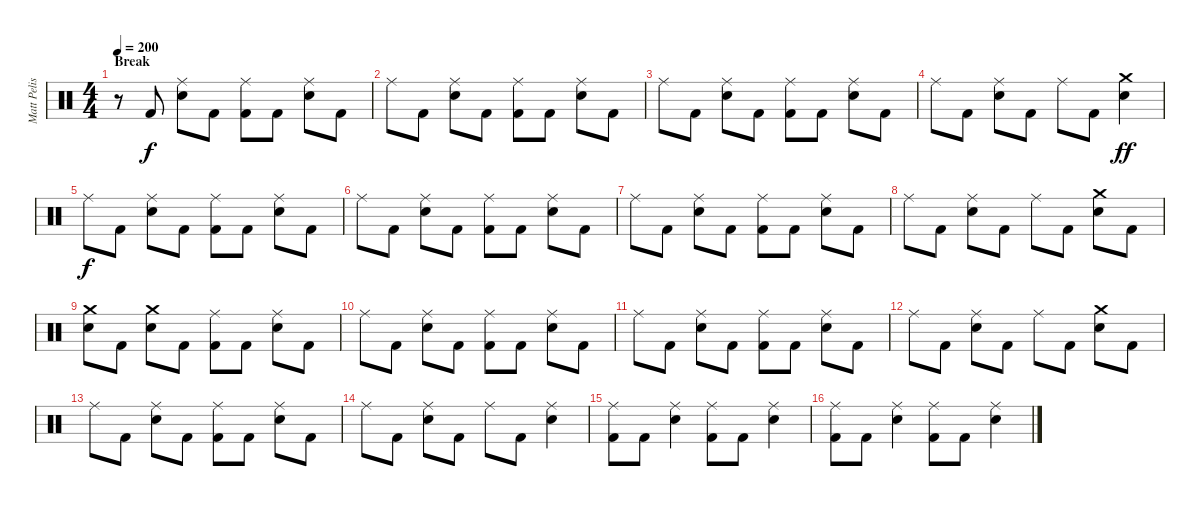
\track ("Matt Pelissier" "Matt Pelis") {instrument percussion}
\staff {score}
\articulation defaults
\ts (4 4)
\section ("" "Break")
\tempo 200
\clef neutral
\ks c
r.8{dy ff} "Kick (hit) 2".8{dy f} ("Ride (middle)" "Snare (hit) 2").8 "Kick (hit) 2".8 ("Ride (middle)" "Kick (hit) 2").8 "Kick (hit) 2".8 ("Ride (middle)" "Snare (hit) 2").8 "Kick (hit) 2".8 |
"Ride (middle)".8 "Kick (hit) 2".8 ("Ride (middle)" "Snare (hit) 2").8 "Kick (hit) 2".8 ("Ride (middle)" "Kick (hit) 2").8 "Kick (hit) 2".8 ("Ride (middle)" "Snare (hit) 2").8 "Kick (hit) 2".8 |
"Ride (middle)".8 "Kick (hit) 2".8 ("Ride (middle)" "Snare (hit) 2").8 "Kick (hit) 2".8 ("Ride (middle)" "Kick (hit) 2").8 "Kick (hit) 2".8 ("Ride (middle)" "Snare (hit) 2").8 "Kick (hit) 2".8 |
"Ride (middle)".8 "Kick (hit) 2".8 ("Ride (middle)" "Snare (hit) 2").8 "Kick (hit) 2".8 "Ride (middle)".8 "Kick (hit) 2".8 ("Crash medium (hit)" "Snare (hit) 2").4{dy ff} |
"Ride (middle)".8{dy f} "Kick (hit) 2".8 ("Ride (middle)" "Snare (hit) 2").8 "Kick (hit) 2".8 ("Ride (middle)" "Kick (hit) 2").8 "Kick (hit) 2".8 ("Ride (middle)" "Snare (hit) 2").8 "Kick (hit) 2".8 |
"Ride (middle)".8 "Kick (hit) 2".8 ("Ride (middle)" "Snare (hit) 2").8 "Kick (hit) 2".8 ("Ride (middle)" "Kick (hit) 2").8 "Kick (hit) 2".8 ("Ride (middle)" "Snare (hit) 2").8 "Kick (hit) 2".8 |
"Ride (middle)".8 "Kick (hit) 2".8 ("Ride (middle)" "Snare (hit) 2").8 "Kick (hit) 2".8 ("Ride (middle)" "Kick (hit) 2").8 "Kick (hit) 2".8 ("Ride (middle)" "Snare (hit) 2").8 "Kick (hit) 2".8 |
"Ride (middle)".8 "Kick (hit) 2".8 ("Ride (middle)" "Snare (hit) 2").8 "Kick (hit) 2".8 "Ride (middle)".8 "Kick (hit) 2".8 ("Crash medium (hit)" "Snare (hit) 2").8 "Kick (hit) 2".8 |
("Crash medium (hit)" "Snare (hit) 2").8 "Kick (hit) 2".8 ("Crash medium (hit)" "Snare (hit) 2").8 "Kick (hit) 2".8 ("Ride (middle)" "Kick (hit) 2").8 "Kick (hit) 2".8 ("Ride (middle)" "Snare (hit) 2").8 "Kick (hit) 2".8 |
"Ride (middle)".8 "Kick (hit) 2".8 ("Ride (middle)" "Snare (hit) 2").8 "Kick (hit) 2".8 ("Ride (middle)" "Kick (hit) 2").8 "Kick (hit) 2".8 ("Ride (middle)" "Snare (hit) 2").8 "Kick (hit) 2".8 |
"Ride (middle)".8 "Kick (hit) 2".8 ("Ride (middle)" "Snare (hit) 2").8 "Kick (hit) 2".8 ("Ride (middle)" "Kick (hit) 2").8 "Kick (hit) 2".8 ("Ride (middle)" "Snare (hit) 2").8 "Kick (hit) 2".8 |
"Ride (middle)".8 "Kick (hit) 2".8 ("Ride (middle)" "Snare (hit) 2").8 "Kick (hit) 2".8 "Ride (middle)".8 "Kick (hit) 2".8 ("Crash medium (hit)" "Snare (hit) 2").8 "Kick (hit) 2".8 |
"Ride (middle)".8 "Kick (hit) 2".8 ("Ride (middle)" "Snare (hit) 2").8 "Kick (hit) 2".8 ("Ride (middle)" "Kick (hit) 2").8 "Kick (hit) 2".8 ("Ride (middle)" "Snare (hit) 2").8 "Kick (hit) 2".8 |
"Ride (middle)".8 "Kick (hit) 2".8 ("Ride (middle)" "Snare (hit) 2").8 "Kick (hit) 2".8 "Ride (middle)".8 "Kick (hit) 2".8 ("Ride (middle)" "Snare (hit) 2").4 |
("Ride (middle)" "Kick (hit) 2").8 "Kick (hit) 2".8 ("Ride (middle)" "Snare (hit) 2").4 ("Ride (middle)" "Kick (hit) 2").8 "Kick (hit) 2".8 ("Ride (middle)" "Snare (hit) 2").4 |
("Ride (middle)" "Kick (hit) 2").8 "Kick (hit) 2".8 ("Ride (middle)" "Snare (hit) 2").4 ("Ride (middle)" "Kick (hit) 2").8 "Kick (hit) 2".8 ("Ride (middle)" "Snare (hit) 2").4
